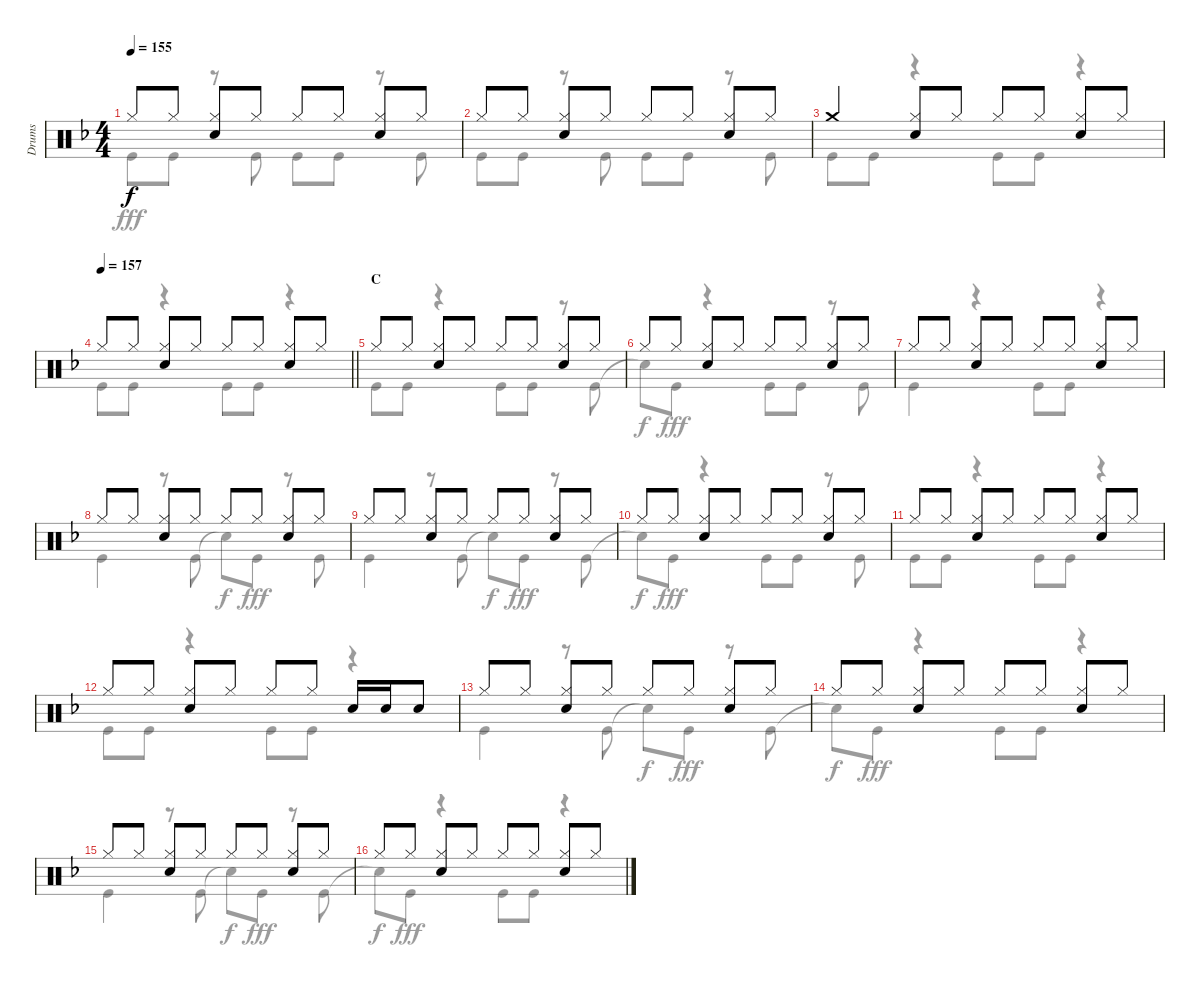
\track ("Drums" "Drums") {instrument percussion}
\staff {score}
\articulation defaults
\voice
\ts (4 4)
\tempo 155
\clef neutral
\ks f "Hi-Hat (closed)".8{dy f} "Hi-Hat (closed)".8
("Hi-Hat (closed)" "Snare (hit) 2").8 "Hi-Hat (closed)".8 "Hi-Hat (closed)".8 "Hi-Hat (closed)".8 ("Hi-Hat (closed)" "Snare (hit) 2").8 "Hi-Hat (closed)".8 |
"Hi-Hat (closed)".8 "Hi-Hat (closed)".8 ("Hi-Hat (closed)" "Snare (hit) 2").8 "Hi-Hat (closed)".8 "Hi-Hat (closed)".8 "Hi-Hat (closed)".8 ("Hi-Hat (closed)" "Snare (hit) 2").8 "Hi-Hat (closed)".8 |
"Crash medium (hit)".4 ("Hi-Hat (closed)" "Snare (hit) 2").8 "Hi-Hat (closed)".8 "Hi-Hat (closed)".8 "Hi-Hat (closed)".8 ("Hi-Hat (closed)" "Snare (hit) 2").8 "Hi-Hat (closed)".8 |
\tempo 157
\barLineRight lightlight "Hi-Hat (closed)".8 "Hi-Hat (closed)".8
("Hi-Hat (closed)" "Snare (hit) 2").8 "Hi-Hat (closed)".8 "Hi-Hat (closed)".8 "Hi-Hat (closed)".8 ("Hi-Hat (closed)" "Snare (hit) 2").8 "Hi-Hat (closed)".8 |
\section ("" "C")
"Hi-Hat (closed)".8 "Hi-Hat (closed)".8 ("Hi-Hat (closed)" "Snare (hit) 2").8 "Hi-Hat (closed)".8 "Hi-Hat (closed)".8 "Hi-Hat (closed)".8 ("Hi-Hat (closed)" "Snare (hit) 2").8 "Hi-Hat (closed)".8 |
"Hi-Hat (closed)".8 "Hi-Hat (closed)".8 ("Hi-Hat (closed)" "Snare (hit) 2").8 "Hi-Hat (closed)".8 "Hi-Hat (closed)".8 "Hi-Hat (closed)".8 ("Hi-Hat (closed)" "Snare (hit) 2").8 "Hi-Hat (closed)".8 |
"Hi-Hat (closed)".8 "Hi-Hat (closed)".8 ("Hi-Hat (closed)" "Snare (hit) 2").8 "Hi-Hat (closed)".8 "Hi-Hat (closed)".8 "Hi-Hat (closed)".8 ("Hi-Hat (closed)" "Snare (hit) 2").8 "Hi-Hat (closed)".8 |
"Hi-Hat (closed)".8 "Hi-Hat (closed)".8 ("Hi-Hat (closed)" "Snare (hit) 2").8 "Hi-Hat (closed)".8 "Hi-Hat (closed)".8 "Hi-Hat (closed)".8 ("Hi-Hat (closed)" "Snare (hit) 2").8 "Hi-Hat (closed)".8 |
"Hi-Hat (closed)".8 "Hi-Hat (closed)".8 ("Hi-Hat (closed)" "Snare (hit) 2").8 "Hi-Hat (closed)".8 "Hi-Hat (closed)".8 "Hi-Hat (closed)".8 ("Hi-Hat (closed)" "Snare (hit) 2").8 "Hi-Hat (closed)".8 |
"Hi-Hat (closed)".8 "Hi-Hat (closed)".8 ("Hi-Hat (closed)" "Snare (hit) 2").8 "Hi-Hat (closed)".8 "Hi-Hat (closed)".8 "Hi-Hat (closed)".8 ("Hi-Hat (closed)" "Snare (hit) 2").8 "Hi-Hat (closed)".8 |
"Hi-Hat (closed)".8 "Hi-Hat (closed)".8 ("Hi-Hat (closed)" "Snare (hit) 2").8 "Hi-Hat (closed)".8 "Hi-Hat (closed)".8 "Hi-Hat (closed)".8 ("Hi-Hat (closed)" "Snare (hit) 2").8 "Hi-Hat (closed)".8 |
"Hi-Hat (closed)".8 "Hi-Hat (closed)".8 ("Hi-Hat (closed)" "Snare (hit) 2").8 "Hi-Hat (closed)".8 "Hi-Hat (closed)".8 "Hi-Hat (closed)".8 "Snare (hit) 2".16 "Snare (hit) 2".16 "Snare (hit) 2".8 |
"Hi-Hat (closed)".8 "Hi-Hat (closed)".8 ("Hi-Hat (closed)" "Snare (hit) 2").8 "Hi-Hat (closed)".8 "Hi-Hat (closed)".8 "Hi-Hat (closed)".8 ("Hi-Hat (closed)" "Snare (hit) 2").8 "Hi-Hat (closed)".8 |
"Hi-Hat (closed)".8 "Hi-Hat (closed)".8 ("Hi-Hat (closed)" "Snare (hit) 2").8 "Hi-Hat (closed)".8 "Hi-Hat (closed)".8 "Hi-Hat (closed)".8 ("Hi-Hat (closed)" "Snare (hit) 2").8 "Hi-Hat (closed)".8 |
"Hi-Hat (closed)".8 "Hi-Hat (closed)".8 ("Hi-Hat (closed)" "Snare (hit) 2").8 "Hi-Hat (closed)".8 "Hi-Hat (closed)".8 "Hi-Hat (closed)".8 ("Hi-Hat (closed)" "Snare (hit) 2").8 "Hi-Hat (closed)".8 |
"Hi-Hat (closed)".8 "Hi-Hat (closed)".8 ("Hi-Hat (closed)" "Snare (hit) 2").8 "Hi-Hat (closed)".8 "Hi-Hat (closed)".8 "Hi-Hat (closed)".8 ("Hi-Hat (closed)" "Snare (hit) 2").8 "Hi-Hat (closed)".8
\voice
\clef neutral
\ottava regular
\simile none
\ks f "Kick (hit)".8{dy fff} "Kick (hit)".8
r.8 "Kick (hit)".8 "Kick (hit)".8 "Kick (hit)".8 r.8 "Kick (hit)".8 |
"Kick (hit)".8 "Kick (hit)".8 r.8 "Kick (hit)".8 "Kick (hit)".8 "Kick (hit)".8 r.8 "Kick (hit)".8 |
"Kick (hit)".8 "Kick (hit)".8 r.4 "Kick (hit)".8 "Kick (hit)".8 r.4 |
\barLineRight lightlight "Kick (hit)".8 "Kick (hit)".8
r.4 "Kick (hit)".8 "Kick (hit)".8 r.4 |
"Kick (hit)".8 "Kick (hit)".8 r.4 "Kick (hit)".8 "Kick (hit)".8 r.8 "Kick (hit)".8 |
"Snare (hit)"{t}.8{dy f} "Kick (hit)".8{dy fff} r.4 "Kick (hit)".8 "Kick (hit)".8 r.8 "Kick (hit)".8 |
"Kick (hit)".4 r.4 "Kick (hit)".8 "Kick (hit)".8 r.4 |
"Kick (hit)".4 r.8 "Kick (hit)".8 "Snare (hit)"{t}.8{dy f} "Kick (hit)".8{dy fff} r.8 "Kick (hit)".8 |
"Kick (hit)".4 r.8 "Kick (hit)".8 "Snare (hit)"{t}.8{dy f} "Kick (hit)".8{dy fff} r.8 "Kick (hit)".8 |
"Snare (hit)"{t}.8{dy f} "Kick (hit)".8{dy fff} r.4 "Kick (hit)".8 "Kick (hit)".8 r.8 "Kick (hit)".8 |
"Kick (hit)".8 "Kick (hit)".8 r.4 "Kick (hit)".8 "Kick (hit)".8 r.4 |
"Kick (hit)".8 "Kick (hit)".8 r.4 "Kick (hit)".8 "Kick (hit)".8 r.4 |
"Kick (hit)".4 r.8 "Kick (hit)".8 "Snare (hit)"{t}.8{dy f} "Kick (hit)".8{dy fff} r.8 "Kick (hit)".8 |
"Snare (hit)"{t}.8{dy f} "Kick (hit)".8{dy fff} r.4 "Kick (hit)".8 "Kick (hit)".8 r.4 |
"Kick (hit)".4 r.8 "Kick (hit)".8 "Snare (hit)"{t}.8{dy f} "Kick (hit)".8{dy fff} r.8 "Kick (hit)".8 |
"Snare (hit)"{t}.8{dy f} "Kick (hit)".8{dy fff} r.4 "Kick (hit)".8 "Kick (hit)".8 r.4
